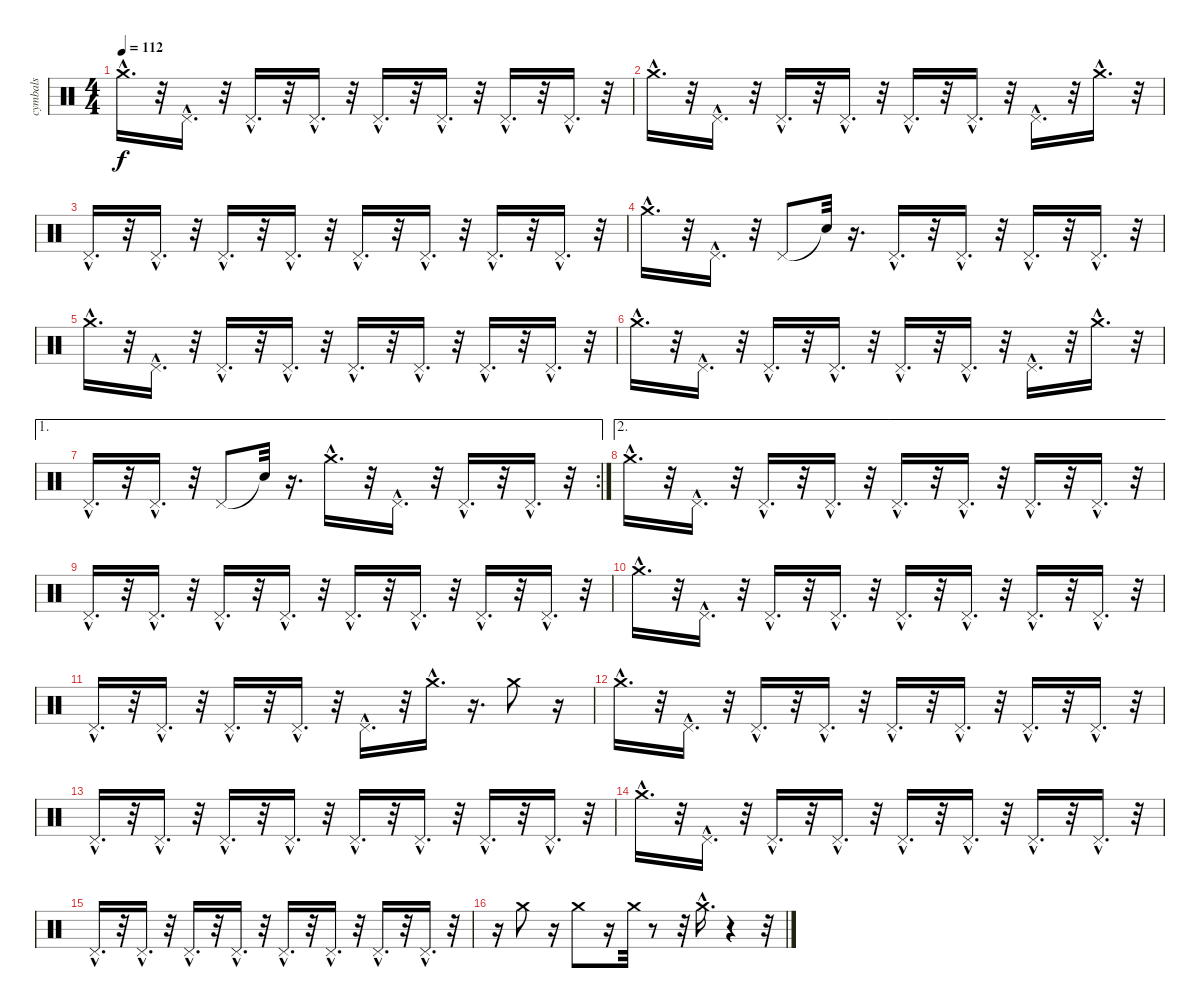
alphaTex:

\track ("cymbals" "cymbals") {instrument percussion}
\staff {score}
\articulation defaults
\ts (4 4)
\tempo 112
\clef neutral
\ks c "Crash medium (hit)"{hac}.16{d dy f}
r.32 "Pedal Hi-Hat (hit)"{hac}.16{d} r.32 "Pedal Hi-Hat (hit)"{hac}.16{d} r.32 "Pedal Hi-Hat (hit)"{hac}.16{d} r.32 "Pedal Hi-Hat (hit)"{hac}.16{d} r.32 "Pedal Hi-Hat (hit)"{hac}.16{d} r.32 "Pedal Hi-Hat (hit)"{hac}.16{d} r.32 "Pedal Hi-Hat (hit)"{hac}.16{d} r.32 |
"Crash medium (hit)"{hac}.16{d} r.32 "Pedal Hi-Hat (hit)"{hac}.16{d} r.32 "Pedal Hi-Hat (hit)"{hac}.16{d} r.32 "Pedal Hi-Hat (hit)"{hac}.16{d} r.32 "Pedal Hi-Hat (hit)"{hac}.16{d} r.32 "Pedal Hi-Hat (hit)"{hac}.16{d} r.32 "Pedal Hi-Hat (hit)"{hac}.16{d} r.32 "Crash medium (hit)"{hac}.16{d} r.32 |
"Pedal Hi-Hat (hit)"{hac}.16{d} r.32 "Pedal Hi-Hat (hit)"{hac}.16{d} r.32 "Pedal Hi-Hat (hit)"{hac}.16{d} r.32 "Pedal Hi-Hat (hit)"{hac}.16{d} r.32 "Pedal Hi-Hat (hit)"{hac}.16{d} r.32 "Pedal Hi-Hat (hit)"{hac}.16{d} r.32 "Pedal Hi-Hat (hit)"{hac}.16{d} r.32 "Pedal Hi-Hat (hit)"{hac}.16{d} r.32 |
"Crash medium (hit)"{hac}.16{d} r.32 "Pedal Hi-Hat (hit)"{hac}.16{d} r.32 "Pedal Hi-Hat (hit)".8 "Snare (hit)"{t}.32 r.16{d} "Pedal Hi-Hat (hit)"{hac}.16{d} r.32 "Pedal Hi-Hat (hit)"{hac}.16{d} r.32 "Pedal Hi-Hat (hit)"{hac}.16{d} r.32 "Pedal Hi-Hat (hit)"{hac}.16{d} r.32 |
"Crash medium (hit)"{hac}.16{d} r.32 "Pedal Hi-Hat (hit)"{hac}.16{d} r.32 "Pedal Hi-Hat (hit)"{hac}.16{d} r.32 "Pedal Hi-Hat (hit)"{hac}.16{d} r.32 "Pedal Hi-Hat (hit)"{hac}.16{d} r.32 "Pedal Hi-Hat (hit)"{hac}.16{d} r.32 "Pedal Hi-Hat (hit)"{hac}.16{d} r.32 "Pedal Hi-Hat (hit)"{hac}.16{d} r.32 |
"Crash medium (hit)"{hac}.16{d} r.32 "Pedal Hi-Hat (hit)"{hac}.16{d} r.32 "Pedal Hi-Hat (hit)"{hac}.16{d} r.32 "Pedal Hi-Hat (hit)"{hac}.16{d} r.32 "Pedal Hi-Hat (hit)"{hac}.16{d} r.32 "Pedal Hi-Hat (hit)"{hac}.16{d} r.32 "Pedal Hi-Hat (hit)"{hac}.16{d} r.32 "Crash medium (hit)"{hac}.16{d} r.32 |
\ae 1
\rc 2 "Pedal Hi-Hat (hit)"{hac}.16{d}
r.32 "Pedal Hi-Hat (hit)"{hac}.16{d} r.32 "Pedal Hi-Hat (hit)".8 "Snare (hit)"{t}.32 r.16{d} "Crash medium (hit)"{hac}.16{d} r.32 "Pedal Hi-Hat (hit)"{hac}.16{d} r.32 "Pedal Hi-Hat (hit)"{hac}.16{d} r.32 "Pedal Hi-Hat (hit)"{hac}.16{d} r.32 |
\ae 2 "Crash medium (hit)"{hac}.16{d}
r.32 "Pedal Hi-Hat (hit)"{hac}.16{d} r.32 "Pedal Hi-Hat (hit)"{hac}.16{d} r.32 "Pedal Hi-Hat (hit)"{hac}.16{d} r.32 "Pedal Hi-Hat (hit)"{hac}.16{d} r.32 "Pedal Hi-Hat (hit)"{hac}.16{d} r.32 "Pedal Hi-Hat (hit)"{hac}.16{d} r.32 "Pedal Hi-Hat (hit)"{hac}.16{d} r.32 |
"Pedal Hi-Hat (hit)"{hac}.16{d} r.32 "Pedal Hi-Hat (hit)"{hac}.16{d} r.32 "Pedal Hi-Hat (hit)"{hac}.16{d} r.32 "Pedal Hi-Hat (hit)"{hac}.16{d} r.32 "Pedal Hi-Hat (hit)"{hac}.16{d} r.32 "Pedal Hi-Hat (hit)"{hac}.16{d} r.32 "Pedal Hi-Hat (hit)"{hac}.16{d} r.32 "Pedal Hi-Hat (hit)"{hac}.16{d} r.32 |
"Crash medium (hit)"{hac}.16{d} r.32 "Pedal Hi-Hat (hit)"{hac}.16{d} r.32 "Pedal Hi-Hat (hit)"{hac}.16{d} r.32 "Pedal Hi-Hat (hit)"{hac}.16{d} r.32 "Pedal Hi-Hat (hit)"{hac}.16{d} r.32 "Pedal Hi-Hat (hit)"{hac}.16{d} r.32 "Pedal Hi-Hat (hit)"{hac}.16{d} r.32 "Pedal Hi-Hat (hit)"{hac}.16{d} r.32 |
"Pedal Hi-Hat (hit)"{hac}.16{d} r.32 "Pedal Hi-Hat (hit)"{hac}.16{d} r.32 "Pedal Hi-Hat (hit)"{hac}.16{d} r.32 "Pedal Hi-Hat (hit)"{hac}.16{d} r.32 "Pedal Hi-Hat (hit)"{hac}.16{d} r.32 "Crash medium (hit)"{hac}.16{d} r.16{d} "Crash medium (hit)".8 r.16 |
"Crash medium (hit)"{hac}.16{d} r.32 "Pedal Hi-Hat (hit)"{hac}.16{d} r.32 "Pedal Hi-Hat (hit)"{hac}.16{d} r.32 "Pedal Hi-Hat (hit)"{hac}.16{d} r.32 "Pedal Hi-Hat (hit)"{hac}.16{d} r.32 "Pedal Hi-Hat (hit)"{hac}.16{d} r.32 "Pedal Hi-Hat (hit)"{hac}.16{d} r.32 "Pedal Hi-Hat (hit)"{hac}.16{d} r.32 |
"Pedal Hi-Hat (hit)"{hac}.16{d} r.32 "Pedal Hi-Hat (hit)"{hac}.16{d} r.32 "Pedal Hi-Hat (hit)"{hac}.16{d} r.32 "Pedal Hi-Hat (hit)"{hac}.16{d} r.32 "Pedal Hi-Hat (hit)"{hac}.16{d} r.32 "Pedal Hi-Hat (hit)"{hac}.16{d} r.32 "Pedal Hi-Hat (hit)"{hac}.16{d} r.32 "Pedal Hi-Hat (hit)"{hac}.16{d} r.32 |
"Crash medium (hit)"{hac}.16{d} r.32 "Pedal Hi-Hat (hit)"{hac}.16{d} r.32 "Pedal Hi-Hat (hit)"{hac}.16{d} r.32 "Pedal Hi-Hat (hit)"{hac}.16{d} r.32 "Pedal Hi-Hat (hit)"{hac}.16{d} r.32 "Pedal Hi-Hat (hit)"{hac}.16{d} r.32 "Pedal Hi-Hat (hit)"{hac}.16{d} r.32 "Pedal Hi-Hat (hit)"{hac}.16{d} r.32 |
"Pedal Hi-Hat (hit)"{hac}.16{d} r.32 "Pedal Hi-Hat (hit)"{hac}.16{d} r.32 "Pedal Hi-Hat (hit)"{hac}.16{d} r.32 "Pedal Hi-Hat (hit)"{hac}.16{d} r.32 "Pedal Hi-Hat (hit)"{hac}.16{d} r.32 "Pedal Hi-Hat (hit)"{hac}.16{d} r.32 "Pedal Hi-Hat (hit)"{hac}.16{d} r.32 "Pedal Hi-Hat (hit)"{hac}.16{d} r.32 |
r.16 "Crash medium (hit)".8 r.16 "Crash medium (hit)".8 r.16 "Crash medium (hit)".32 r.8 r.32 "Crash medium (hit)"{hac}.16{d} r.4 r.32
